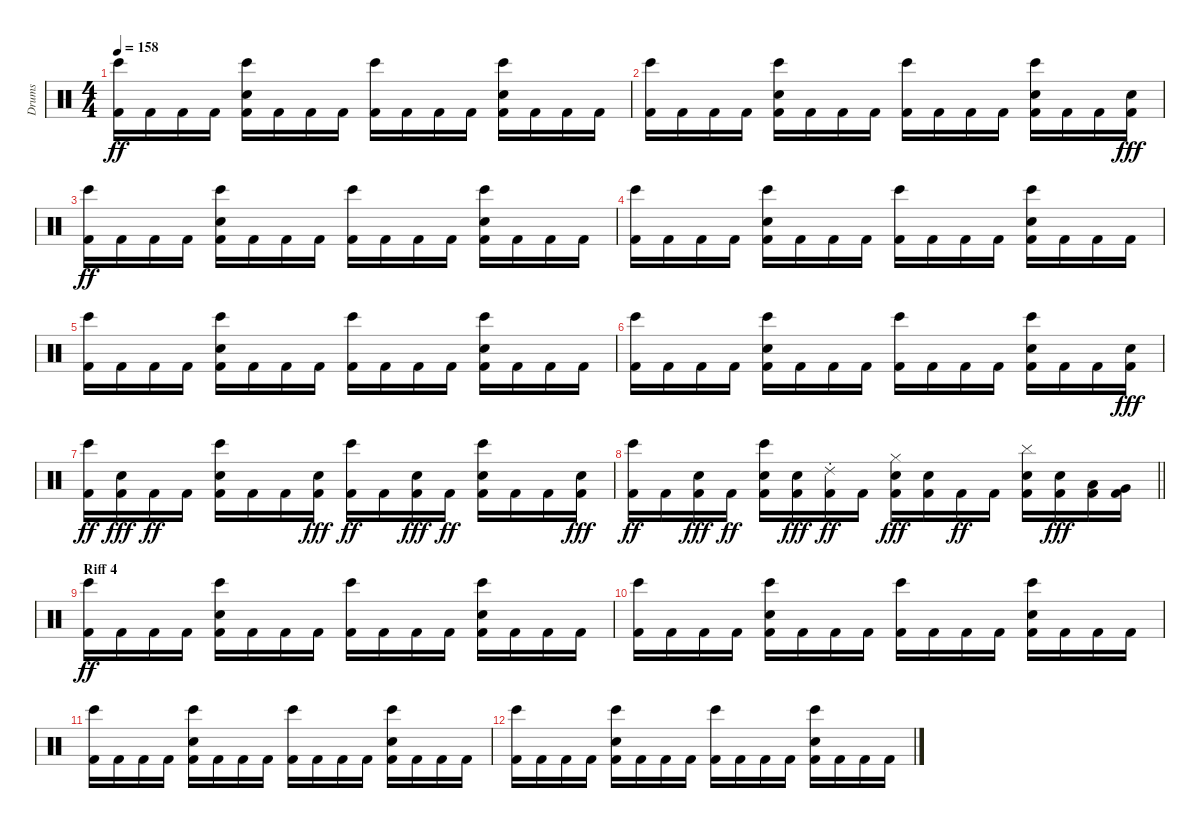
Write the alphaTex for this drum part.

\track ("Drums" "Drums") {instrument percussion}
\staff {score}
\articulation defaults
\ts (4 4)
\tempo 158
\clef neutral
\ks c
("Bongo High (hit)" "Kick (hit) 2").16{dy ff} "Kick (hit) 2".16 "Kick (hit) 2".16 "Kick (hit) 2".16 ("Bongo High (hit)" "Kick (hit) 2" "Snare (hit) 2").16 "Kick (hit) 2".16 "Kick (hit) 2".16 "Kick (hit) 2".16 ("Bongo High (hit)" "Kick (hit) 2").16 "Kick (hit) 2".16 "Kick (hit) 2".16 "Kick (hit) 2".16 ("Bongo High (hit)" "Kick (hit) 2" "Snare (hit) 2").16 "Kick (hit) 2".16 "Kick (hit) 2".16 "Kick (hit) 2".16 |
("Bongo High (hit)" "Kick (hit) 2").16 "Kick (hit) 2".16 "Kick (hit) 2".16 "Kick (hit) 2".16 ("Bongo High (hit)" "Kick (hit) 2" "Snare (hit) 2").16 "Kick (hit) 2".16 "Kick (hit) 2".16 "Kick (hit) 2".16 ("Bongo High (hit)" "Kick (hit) 2").16 "Kick (hit) 2".16 "Kick (hit) 2".16 "Kick (hit) 2".16 ("Bongo High (hit)" "Kick (hit) 2" "Snare (hit) 2").16 "Kick (hit) 2".16 "Kick (hit) 2".16 ("Kick (hit) 2" "Snare (hit) 2").16{dy fff} |
("Bongo High (hit)" "Kick (hit) 2").16{dy ff} "Kick (hit) 2".16 "Kick (hit) 2".16 "Kick (hit) 2".16 ("Bongo High (hit)" "Kick (hit) 2" "Snare (hit) 2").16 "Kick (hit) 2".16 "Kick (hit) 2".16 "Kick (hit) 2".16 ("Bongo High (hit)" "Kick (hit) 2").16 "Kick (hit) 2".16 "Kick (hit) 2".16 "Kick (hit) 2".16 ("Bongo High (hit)" "Kick (hit) 2" "Snare (hit) 2").16 "Kick (hit) 2".16 "Kick (hit) 2".16 "Kick (hit) 2".16 |
("Bongo High (hit)" "Kick (hit) 2").16 "Kick (hit) 2".16 "Kick (hit) 2".16 "Kick (hit) 2".16 ("Bongo High (hit)" "Kick (hit) 2" "Snare (hit) 2").16 "Kick (hit) 2".16 "Kick (hit) 2".16 "Kick (hit) 2".16 ("Bongo High (hit)" "Kick (hit) 2").16 "Kick (hit) 2".16 "Kick (hit) 2".16 "Kick (hit) 2".16 ("Bongo High (hit)" "Kick (hit) 2" "Snare (hit) 2").16 "Kick (hit) 2".16 "Kick (hit) 2".16 "Kick (hit) 2".16 |
("Bongo High (hit)" "Kick (hit) 2").16 "Kick (hit) 2".16 "Kick (hit) 2".16 "Kick (hit) 2".16 ("Bongo High (hit)" "Kick (hit) 2" "Snare (hit) 2").16 "Kick (hit) 2".16 "Kick (hit) 2".16 "Kick (hit) 2".16 ("Bongo High (hit)" "Kick (hit) 2").16 "Kick (hit) 2".16 "Kick (hit) 2".16 "Kick (hit) 2".16 ("Bongo High (hit)" "Kick (hit) 2" "Snare (hit) 2").16 "Kick (hit) 2".16 "Kick (hit) 2".16 "Kick (hit) 2".16 |
("Bongo High (hit)" "Kick (hit) 2").16 "Kick (hit) 2".16 "Kick (hit) 2".16 "Kick (hit) 2".16 ("Bongo High (hit)" "Kick (hit) 2" "Snare (hit) 2").16 "Kick (hit) 2".16 "Kick (hit) 2".16 "Kick (hit) 2".16 ("Bongo High (hit)" "Kick (hit) 2").16 "Kick (hit) 2".16 "Kick (hit) 2".16 "Kick (hit) 2".16 ("Bongo High (hit)" "Kick (hit) 2" "Snare (hit) 2").16 "Kick (hit) 2".16 "Kick (hit) 2".16 ("Kick (hit) 2" "Snare (hit) 2").16{dy fff} |
("Bongo High (hit)" "Kick (hit) 2").16{dy ff} ("Kick (hit) 2" "Snare (hit) 2").16{dy fff} "Kick (hit) 2".16{dy ff} "Kick (hit) 2".16 ("Bongo High (hit)" "Kick (hit) 2" "Snare (hit) 2").16 "Kick (hit) 2".16 "Kick (hit) 2".16 ("Kick (hit) 2" "Snare (hit) 2").16{dy fff} ("Bongo High (hit)" "Kick (hit) 2").16{dy ff} "Kick (hit) 2".16 ("Kick (hit) 2" "Snare (hit) 2").16{dy fff} "Kick (hit) 2".16{dy ff} ("Bongo High (hit)" "Kick (hit) 2" "Snare (hit) 2").16 "Kick (hit) 2".16 "Kick (hit) 2".16 ("Kick (hit) 2" "Snare (hit) 2").16{dy fff} |
\barLineRight lightlight
("Bongo High (hit)" "Kick (hit) 2").16{dy ff} "Kick (hit) 2".16 ("Kick (hit) 2" "Snare (hit) 2").16{dy fff} "Kick (hit) 2".16{dy ff} ("Bongo High (hit)" "Kick (hit) 2" "Snare (hit) 2").16 ("Kick (hit) 2" "Snare (hit) 2").16{dy fff} ("Ride (choke) 2" "Kick (hit) 2").16{dy ff} "Kick (hit) 2".16 ("Hi-Hat (closed)" "Kick (hit) 2" "Snare (hit) 2").16{dy fff} ("Kick (hit) 2" "Snare (hit) 2").16 "Kick (hit) 2".16{dy ff} "Kick (hit) 2".16 ("Cymbal (hit)" "Kick (hit) 2" "Snare (hit) 2").16 ("Kick (hit) 2" "Snare (hit) 2").16{dy fff} ("Kick (hit) 2" "Low Tom (hit)").16 ("Kick (hit) 2" "Very Low Tom (hit)").16 |
\section ("" "Riff 4")
("Bongo High (hit)" "Kick (hit) 2").16{dy ff} "Kick (hit) 2".16 "Kick (hit) 2".16 "Kick (hit) 2".16 ("Bongo High (hit)" "Kick (hit) 2" "Snare (hit) 2").16 "Kick (hit) 2".16 "Kick (hit) 2".16 "Kick (hit) 2".16 ("Bongo High (hit)" "Kick (hit) 2").16 "Kick (hit) 2".16 "Kick (hit) 2".16 "Kick (hit) 2".16 ("Bongo High (hit)" "Kick (hit) 2" "Snare (hit) 2").16 "Kick (hit) 2".16 "Kick (hit) 2".16 "Kick (hit) 2".16 |
("Bongo High (hit)" "Kick (hit) 2").16 "Kick (hit) 2".16 "Kick (hit) 2".16 "Kick (hit) 2".16 ("Bongo High (hit)" "Kick (hit) 2" "Snare (hit) 2").16 "Kick (hit) 2".16 "Kick (hit) 2".16 "Kick (hit) 2".16 ("Bongo High (hit)" "Kick (hit) 2").16 "Kick (hit) 2".16 "Kick (hit) 2".16 "Kick (hit) 2".16 ("Bongo High (hit)" "Kick (hit) 2" "Snare (hit) 2").16 "Kick (hit) 2".16 "Kick (hit) 2".16 "Kick (hit) 2".16 |
("Bongo High (hit)" "Kick (hit) 2").16 "Kick (hit) 2".16 "Kick (hit) 2".16 "Kick (hit) 2".16 ("Bongo High (hit)" "Kick (hit) 2" "Snare (hit) 2").16 "Kick (hit) 2".16 "Kick (hit) 2".16 "Kick (hit) 2".16 ("Bongo High (hit)" "Kick (hit) 2").16 "Kick (hit) 2".16 "Kick (hit) 2".16 "Kick (hit) 2".16 ("Bongo High (hit)" "Kick (hit) 2" "Snare (hit) 2").16 "Kick (hit) 2".16 "Kick (hit) 2".16 "Kick (hit) 2".16 |
("Bongo High (hit)" "Kick (hit) 2").16 "Kick (hit) 2".16 "Kick (hit) 2".16 "Kick (hit) 2".16 ("Bongo High (hit)" "Kick (hit) 2" "Snare (hit) 2").16 "Kick (hit) 2".16 "Kick (hit) 2".16 "Kick (hit) 2".16 ("Bongo High (hit)" "Kick (hit) 2").16 "Kick (hit) 2".16 "Kick (hit) 2".16 "Kick (hit) 2".16 ("Bongo High (hit)" "Kick (hit) 2" "Snare (hit) 2").16 "Kick (hit) 2".16 "Kick (hit) 2".16 "Kick (hit) 2".16
